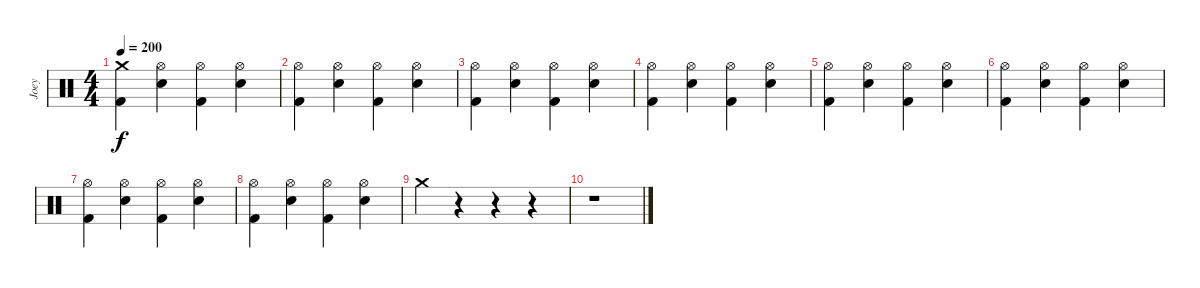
\track ("Joey" "Joey") {instrument percussion}
\staff {score}
\articulation defaults
\ts (4 4)
\tempo 200
\clef neutral
\ks c
("Crash medium (hit)" "Kick (hit) 2").4{dy f} ("Hi-Hat (open)" "Electric Snare (hit)").4 ("Hi-Hat (open)" "Kick (hit) 2").4 ("Hi-Hat (open)" "Electric Snare (hit)").4 |
("Hi-Hat (open)" "Kick (hit) 2").4 ("Hi-Hat (open)" "Electric Snare (hit)").4 ("Hi-Hat (open)" "Kick (hit) 2").4 ("Hi-Hat (open)" "Electric Snare (hit)").4 |
("Hi-Hat (open)" "Kick (hit) 2").4 ("Hi-Hat (open)" "Electric Snare (hit)").4 ("Hi-Hat (open)" "Kick (hit) 2").4 ("Hi-Hat (open)" "Electric Snare (hit)").4 |
("Hi-Hat (open)" "Kick (hit) 2").4 ("Hi-Hat (open)" "Electric Snare (hit)").4 ("Hi-Hat (open)" "Kick (hit) 2").4 ("Hi-Hat (open)" "Electric Snare (hit)").4 |
("Hi-Hat (open)" "Kick (hit) 2").4 ("Hi-Hat (open)" "Electric Snare (hit)").4 ("Hi-Hat (open)" "Kick (hit) 2").4 ("Hi-Hat (open)" "Electric Snare (hit)").4 |
("Hi-Hat (open)" "Kick (hit) 2").4 ("Hi-Hat (open)" "Electric Snare (hit)").4 ("Hi-Hat (open)" "Kick (hit) 2").4 ("Hi-Hat (open)" "Electric Snare (hit)").4 |
("Hi-Hat (open)" "Kick (hit) 2").4 ("Hi-Hat (open)" "Electric Snare (hit)").4 ("Hi-Hat (open)" "Kick (hit) 2").4 ("Hi-Hat (open)" "Electric Snare (hit)").4 |
("Hi-Hat (open)" "Kick (hit) 2").4 ("Hi-Hat (open)" "Electric Snare (hit)").4 ("Hi-Hat (open)" "Kick (hit) 2").4 ("Hi-Hat (open)" "Electric Snare (hit)").4 |
"Crash medium (hit)".4 r.4 r.4 r.4 |
r.1
